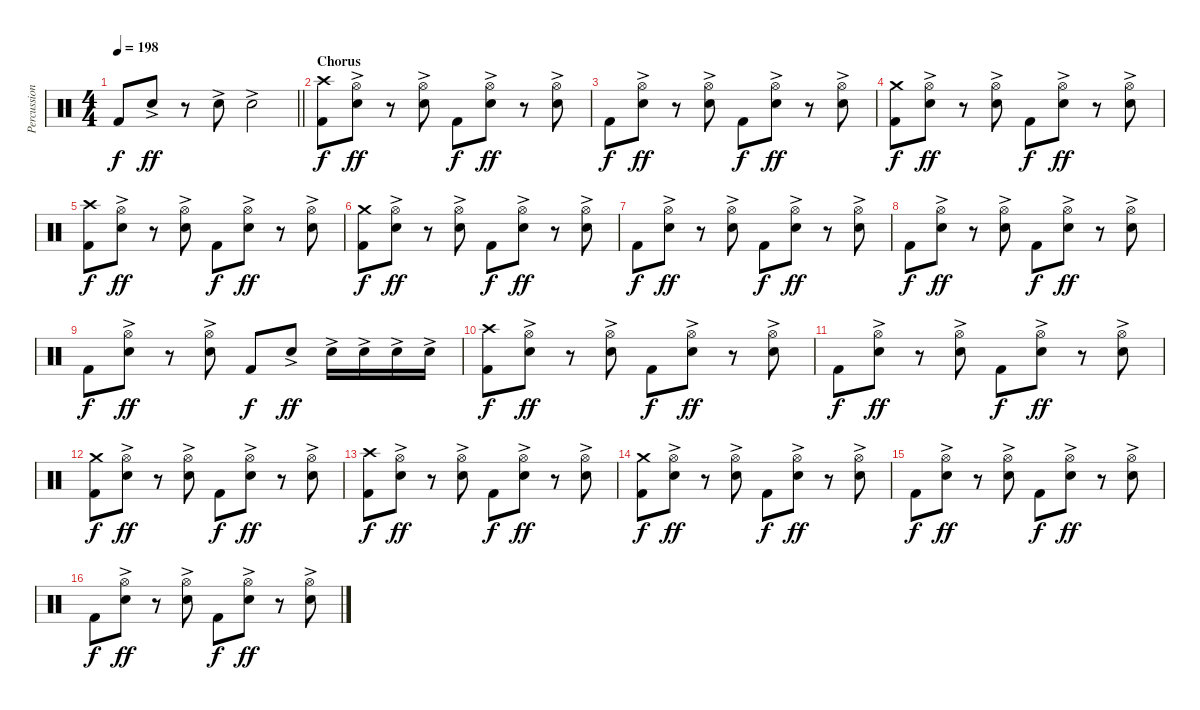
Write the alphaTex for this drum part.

\track ("Percussion" "Percussion") {instrument percussion}
\staff {score}
\articulation defaults
\ts (4 4)
\tempo 198
\clef neutral
\barLineRight lightlight
\ks c "Kick (hit) 2".8{dy f} "Electric Snare (hit)"{ac}.8{dy ff}
r.8 "Electric Snare (hit)"{ac}.8 "Electric Snare (hit)"{ac}.2 |
\section ("" "Chorus")
("Crash high (hit)" "Kick (hit) 2").8{dy f} ("Hi-Hat (open)" "Electric Snare (hit)"{ac}).8{dy ff} r.8 ("Hi-Hat (open)" "Electric Snare (hit)"{ac}).8 "Kick (hit) 2".8{dy f} ("Hi-Hat (open)" "Electric Snare (hit)"{ac}).8{dy ff} r.8 ("Hi-Hat (open)" "Electric Snare (hit)"{ac}).8 |
"Kick (hit) 2".8{dy f} ("Hi-Hat (open)" "Electric Snare (hit)"{ac}).8{dy ff} r.8 ("Hi-Hat (open)" "Electric Snare (hit)"{ac}).8 "Kick (hit) 2".8{dy f} ("Hi-Hat (open)" "Electric Snare (hit)"{ac}).8{dy ff} r.8 ("Hi-Hat (open)" "Electric Snare (hit)"{ac}).8 |
("Crash medium (hit)" "Kick (hit) 2").8{dy f} ("Hi-Hat (open)" "Electric Snare (hit)"{ac}).8{dy ff} r.8 ("Hi-Hat (open)" "Electric Snare (hit)"{ac}).8 "Kick (hit) 2".8{dy f} ("Hi-Hat (open)" "Electric Snare (hit)"{ac}).8{dy ff} r.8 ("Hi-Hat (open)" "Electric Snare (hit)"{ac}).8 |
("Crash high (hit)" "Kick (hit) 2").8{dy f} ("Hi-Hat (open)" "Electric Snare (hit)"{ac}).8{dy ff} r.8 ("Hi-Hat (open)" "Electric Snare (hit)"{ac}).8 "Kick (hit) 2".8{dy f} ("Hi-Hat (open)" "Electric Snare (hit)"{ac}).8{dy ff} r.8 ("Hi-Hat (open)" "Electric Snare (hit)"{ac}).8 |
("Crash medium (hit)" "Kick (hit) 2").8{dy f} ("Hi-Hat (open)" "Electric Snare (hit)"{ac}).8{dy ff} r.8 ("Hi-Hat (open)" "Electric Snare (hit)"{ac}).8 "Kick (hit) 2".8{dy f} ("Hi-Hat (open)" "Electric Snare (hit)"{ac}).8{dy ff} r.8 ("Hi-Hat (open)" "Electric Snare (hit)"{ac}).8 |
"Kick (hit) 2".8{dy f} ("Hi-Hat (open)" "Electric Snare (hit)"{ac}).8{dy ff} r.8 ("Hi-Hat (open)" "Electric Snare (hit)"{ac}).8 "Kick (hit) 2".8{dy f} ("Hi-Hat (open)" "Electric Snare (hit)"{ac}).8{dy ff} r.8 ("Hi-Hat (open)" "Electric Snare (hit)"{ac}).8 |
"Kick (hit) 2".8{dy f} ("Hi-Hat (open)" "Electric Snare (hit)"{ac}).8{dy ff} r.8 ("Hi-Hat (open)" "Electric Snare (hit)"{ac}).8 "Kick (hit) 2".8{dy f} ("Hi-Hat (open)" "Electric Snare (hit)"{ac}).8{dy ff} r.8 ("Hi-Hat (open)" "Electric Snare (hit)"{ac}).8 |
"Kick (hit) 2".8{dy f} ("Hi-Hat (open)" "Electric Snare (hit)"{ac}).8{dy ff} r.8 ("Hi-Hat (open)" "Electric Snare (hit)"{ac}).8 "Kick (hit) 2".8{dy f} "Electric Snare (hit)"{ac}.8{dy ff} "Electric Snare (hit)"{ac}.16 "Electric Snare (hit)"{ac}.16 "Electric Snare (hit)"{ac}.16 "Electric Snare (hit)"{ac}.16 |
("Crash high (hit)" "Kick (hit) 2").8{dy f} ("Hi-Hat (open)" "Electric Snare (hit)"{ac}).8{dy ff} r.8 ("Hi-Hat (open)" "Electric Snare (hit)"{ac}).8 "Kick (hit) 2".8{dy f} ("Hi-Hat (open)" "Electric Snare (hit)"{ac}).8{dy ff} r.8 ("Hi-Hat (open)" "Electric Snare (hit)"{ac}).8 |
"Kick (hit) 2".8{dy f} ("Hi-Hat (open)" "Electric Snare (hit)"{ac}).8{dy ff} r.8 ("Hi-Hat (open)" "Electric Snare (hit)"{ac}).8 "Kick (hit) 2".8{dy f} ("Hi-Hat (open)" "Electric Snare (hit)"{ac}).8{dy ff} r.8 ("Hi-Hat (open)" "Electric Snare (hit)"{ac}).8 |
("Crash medium (hit)" "Kick (hit) 2").8{dy f} ("Hi-Hat (open)" "Electric Snare (hit)"{ac}).8{dy ff} r.8 ("Hi-Hat (open)" "Electric Snare (hit)"{ac}).8 "Kick (hit) 2".8{dy f} ("Hi-Hat (open)" "Electric Snare (hit)"{ac}).8{dy ff} r.8 ("Hi-Hat (open)" "Electric Snare (hit)"{ac}).8 |
("Crash high (hit)" "Kick (hit) 2").8{dy f} ("Hi-Hat (open)" "Electric Snare (hit)"{ac}).8{dy ff} r.8 ("Hi-Hat (open)" "Electric Snare (hit)"{ac}).8 "Kick (hit) 2".8{dy f} ("Hi-Hat (open)" "Electric Snare (hit)"{ac}).8{dy ff} r.8 ("Hi-Hat (open)" "Electric Snare (hit)"{ac}).8 |
("Crash medium (hit)" "Kick (hit) 2").8{dy f} ("Hi-Hat (open)" "Electric Snare (hit)"{ac}).8{dy ff} r.8 ("Hi-Hat (open)" "Electric Snare (hit)"{ac}).8 "Kick (hit) 2".8{dy f} ("Hi-Hat (open)" "Electric Snare (hit)"{ac}).8{dy ff} r.8 ("Hi-Hat (open)" "Electric Snare (hit)"{ac}).8 |
"Kick (hit) 2".8{dy f} ("Hi-Hat (open)" "Electric Snare (hit)"{ac}).8{dy ff} r.8 ("Hi-Hat (open)" "Electric Snare (hit)"{ac}).8 "Kick (hit) 2".8{dy f} ("Hi-Hat (open)" "Electric Snare (hit)"{ac}).8{dy ff} r.8 ("Hi-Hat (open)" "Electric Snare (hit)"{ac}).8 |
"Kick (hit) 2".8{dy f} ("Hi-Hat (open)" "Electric Snare (hit)"{ac}).8{dy ff} r.8 ("Hi-Hat (open)" "Electric Snare (hit)"{ac}).8 "Kick (hit) 2".8{dy f} ("Hi-Hat (open)" "Electric Snare (hit)"{ac}).8{dy ff} r.8 ("Hi-Hat (open)" "Electric Snare (hit)"{ac}).8
